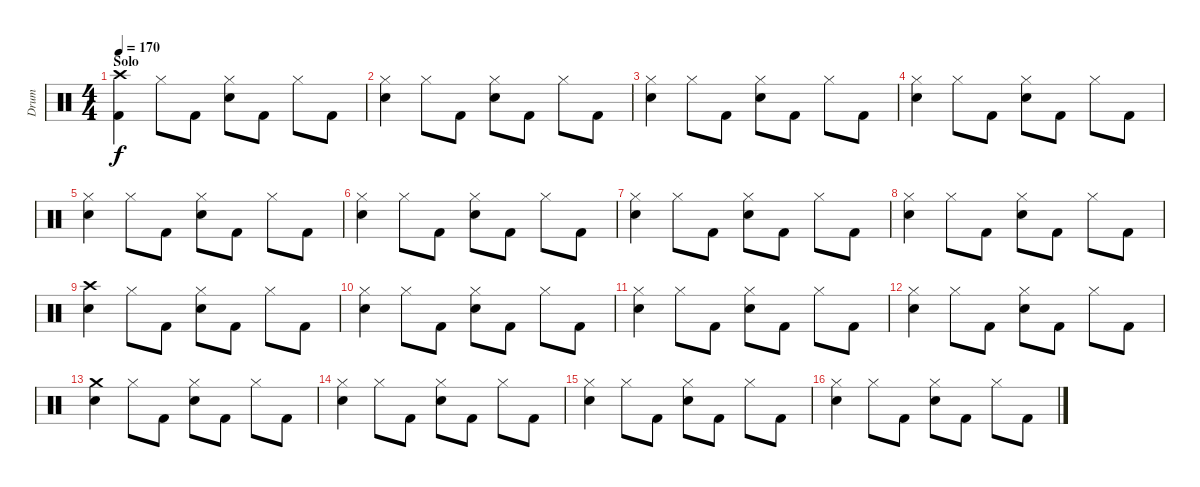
\track ("Drum" "Drum") {instrument percussion}
\staff {score}
\articulation defaults
\ts (4 4)
\section ("" "Solo")
\tempo 170
\clef neutral
\ks c
("Crash high (hit)" "Kick (hit) 2").4{dy f} "Hi-Hat (closed)".8 "Kick (hit) 2".8 ("Hi-Hat (closed)" "Electric Snare (hit)").8 "Kick (hit) 2".8 "Hi-Hat (closed)".8 "Kick (hit) 2".8 |
("Hi-Hat (closed)" "Electric Snare (hit)").4 "Hi-Hat (closed)".8 "Kick (hit) 2".8 ("Hi-Hat (closed)" "Electric Snare (hit)").8 "Kick (hit) 2".8 "Hi-Hat (closed)".8 "Kick (hit) 2".8 |
("Hi-Hat (closed)" "Electric Snare (hit)").4 "Hi-Hat (closed)".8 "Kick (hit) 2".8 ("Hi-Hat (closed)" "Electric Snare (hit)").8 "Kick (hit) 2".8 "Hi-Hat (closed)".8 "Kick (hit) 2".8 |
("Hi-Hat (closed)" "Electric Snare (hit)").4 "Hi-Hat (closed)".8 "Kick (hit) 2".8 ("Hi-Hat (closed)" "Electric Snare (hit)").8 "Kick (hit) 2".8 "Hi-Hat (closed)".8 "Kick (hit) 2".8 |
("Hi-Hat (closed)" "Electric Snare (hit)").4 "Hi-Hat (closed)".8 "Kick (hit) 2".8 ("Hi-Hat (closed)" "Electric Snare (hit)").8 "Kick (hit) 2".8 "Hi-Hat (closed)".8 "Kick (hit) 2".8 |
("Hi-Hat (closed)" "Electric Snare (hit)").4 "Hi-Hat (closed)".8 "Kick (hit) 2".8 ("Hi-Hat (closed)" "Electric Snare (hit)").8 "Kick (hit) 2".8 "Hi-Hat (closed)".8 "Kick (hit) 2".8 |
("Hi-Hat (closed)" "Electric Snare (hit)").4 "Hi-Hat (closed)".8 "Kick (hit) 2".8 ("Hi-Hat (closed)" "Electric Snare (hit)").8 "Kick (hit) 2".8 "Hi-Hat (closed)".8 "Kick (hit) 2".8 |
("Hi-Hat (closed)" "Electric Snare (hit)").4 "Hi-Hat (closed)".8 "Kick (hit) 2".8 ("Hi-Hat (closed)" "Electric Snare (hit)").8 "Kick (hit) 2".8 "Hi-Hat (closed)".8 "Kick (hit) 2".8 |
("Crash high (hit)" "Electric Snare (hit)").4 "Hi-Hat (closed)".8 "Kick (hit) 2".8 ("Hi-Hat (closed)" "Electric Snare (hit)").8 "Kick (hit) 2".8 "Hi-Hat (closed)".8 "Kick (hit) 2".8 |
("Hi-Hat (closed)" "Electric Snare (hit)").4 "Hi-Hat (closed)".8 "Kick (hit) 2".8 ("Hi-Hat (closed)" "Electric Snare (hit)").8 "Kick (hit) 2".8 "Hi-Hat (closed)".8 "Kick (hit) 2".8 |
("Hi-Hat (closed)" "Electric Snare (hit)").4 "Hi-Hat (closed)".8 "Kick (hit) 2".8 ("Hi-Hat (closed)" "Electric Snare (hit)").8 "Kick (hit) 2".8 "Hi-Hat (closed)".8 "Kick (hit) 2".8 |
("Hi-Hat (closed)" "Electric Snare (hit)").4 "Hi-Hat (closed)".8 "Kick (hit) 2".8 ("Hi-Hat (closed)" "Electric Snare (hit)").8 "Kick (hit) 2".8 "Hi-Hat (closed)".8 "Kick (hit) 2".8 |
("Crash medium (hit)" "Electric Snare (hit)").4 "Hi-Hat (closed)".8 "Kick (hit) 2".8 ("Hi-Hat (closed)" "Electric Snare (hit)").8 "Kick (hit) 2".8 "Hi-Hat (closed)".8 "Kick (hit) 2".8 |
("Hi-Hat (closed)" "Electric Snare (hit)").4 "Hi-Hat (closed)".8 "Kick (hit) 2".8 ("Hi-Hat (closed)" "Electric Snare (hit)").8 "Kick (hit) 2".8 "Hi-Hat (closed)".8 "Kick (hit) 2".8 |
("Hi-Hat (closed)" "Electric Snare (hit)").4 "Hi-Hat (closed)".8 "Kick (hit) 2".8 ("Hi-Hat (closed)" "Electric Snare (hit)").8 "Kick (hit) 2".8 "Hi-Hat (closed)".8 "Kick (hit) 2".8 |
("Hi-Hat (closed)" "Electric Snare (hit)").4 "Hi-Hat (closed)".8 "Kick (hit) 2".8 ("Hi-Hat (closed)" "Electric Snare (hit)").8 "Kick (hit) 2".8 "Hi-Hat (closed)".8 "Kick (hit) 2".8
